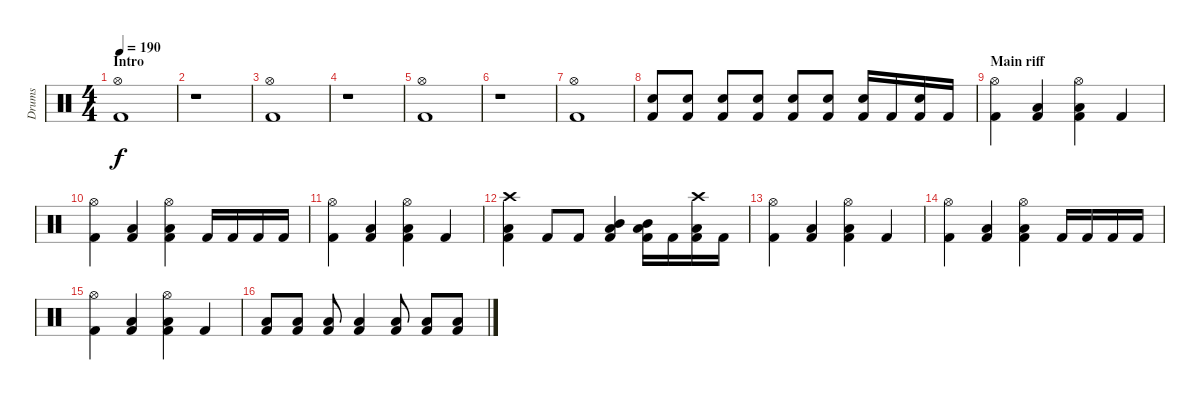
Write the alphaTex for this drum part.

\track ("Drums" "Drums") {instrument percussion}
\staff {score}
\articulation defaults
\ts (4 4)
\section ("" "Intro")
\tempo 190
\clef neutral
\ks c
("Hi-Hat (open)" "Kick (hit) 2").1{dy f} |
r.1 |
("Hi-Hat (open)" "Kick (hit) 2").1 |
r.1 |
("Hi-Hat (open)" "Kick (hit) 2").1 |
r.1 |
("Hi-Hat (open)" "Kick (hit) 2").1 |
("Snare (hit) 2" "Kick (hit) 2").8 ("Snare (hit) 2" "Kick (hit) 2").8 ("Snare (hit) 2" "Kick (hit) 2").8 ("Snare (hit) 2" "Kick (hit) 2").8 ("Snare (hit) 2" "Kick (hit) 2").8 ("Snare (hit) 2" "Kick (hit) 2").8 ("Snare (hit) 2" "Kick (hit) 2").16 "Kick (hit) 2".16 ("Snare (hit) 2" "Kick (hit) 2").16 "Kick (hit) 2".16 |
\section ("" "Main riff")
("Hi-Hat (open)" "Kick (hit) 2").4 ("Low Floor Tom (hit)" "Kick (hit) 2").4 ("Hi-Hat (open)" "Low Floor Tom (hit)" "Kick (hit) 2").4 "Kick (hit) 2".4 |
("Hi-Hat (open)" "Kick (hit) 2").4 ("Low Floor Tom (hit)" "Kick (hit) 2").4 ("Hi-Hat (open)" "Low Floor Tom (hit)" "Kick (hit) 2").4 "Kick (hit) 2".16 "Kick (hit) 2".16 "Kick (hit) 2".16 "Kick (hit) 2".16 |
("Hi-Hat (open)" "Kick (hit) 2").4 ("Low Floor Tom (hit)" "Kick (hit) 2").4 ("Hi-Hat (open)" "Low Floor Tom (hit)" "Kick (hit) 2").4 "Kick (hit) 2".4 |
("Crash high (hit)" "Low Floor Tom (hit)" "Kick (hit) 2").4 "Kick (hit) 2".8 "Kick (hit) 2".8 ("Mid Tom (hit)" "Low Floor Tom (hit)" "Kick (hit) 2").4 ("Mid Tom (hit)" "Low Floor Tom (hit)" "Kick (hit) 2").16 "Kick (hit) 2".16 ("Crash high (hit)" "Low Floor Tom (hit)" "Kick (hit) 2").16 "Kick (hit) 2".16 |
("Hi-Hat (open)" "Kick (hit) 2").4 ("Low Floor Tom (hit)" "Kick (hit) 2").4 ("Hi-Hat (open)" "Low Floor Tom (hit)" "Kick (hit) 2").4 "Kick (hit) 2".4 |
("Hi-Hat (open)" "Kick (hit) 2").4 ("Low Floor Tom (hit)" "Kick (hit) 2").4 ("Hi-Hat (open)" "Low Floor Tom (hit)" "Kick (hit) 2").4 "Kick (hit) 2".16 "Kick (hit) 2".16 "Kick (hit) 2".16 "Kick (hit) 2".16 |
("Hi-Hat (open)" "Kick (hit) 2").4 ("Low Floor Tom (hit)" "Kick (hit) 2").4 ("Hi-Hat (open)" "Low Floor Tom (hit)" "Kick (hit) 2").4 "Kick (hit) 2".4 |
("Low Floor Tom (hit)" "Kick (hit) 2").8 ("Low Floor Tom (hit)" "Kick (hit) 2").8 ("Low Floor Tom (hit)" "Kick (hit) 2").8 ("Low Floor Tom (hit)" "Kick (hit) 2").4 ("Low Floor Tom (hit)" "Kick (hit) 2").8 ("Low Floor Tom (hit)" "Kick (hit) 2").8 ("Low Floor Tom (hit)" "Kick (hit) 2").8
